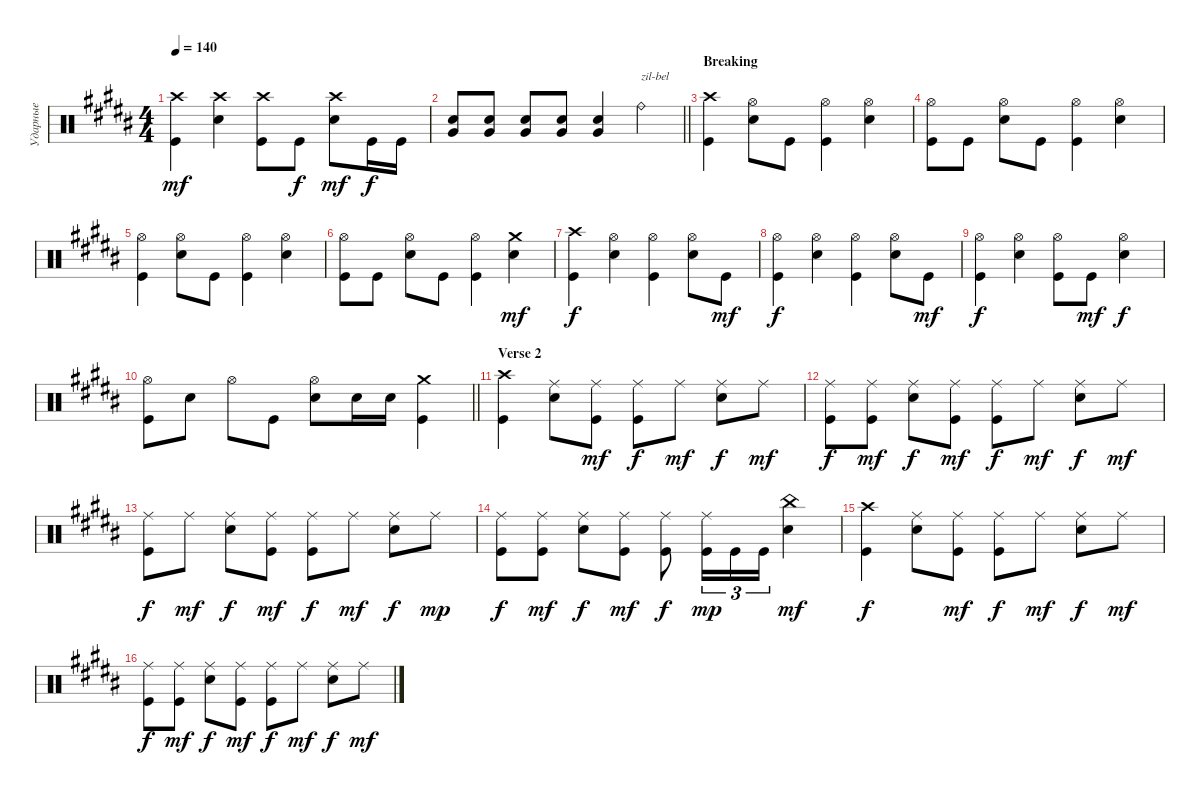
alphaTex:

\track ("Ударные" "Ударные") {instrument percussion}
\staff {score}
\articulation defaults
\ts (4 4)
\tempo 140
\clef neutral
\ks g#minor
("Kick (hit)" "Crash high (hit)").4{dy mf} ("Snare (hit) 2" "Crash high (hit)").4 ("Kick (hit)" "Crash high (hit)").8 "Kick (hit)".8{dy f} ("Snare (hit) 2" "Crash high (hit)").8{dy mf} "Kick (hit)".16{dy f} "Kick (hit)".16 |
\barLineRight lightlight
("Very Low Tom (hit)" "Snare (hit) 2").8{bd 60} ("Very Low Tom (hit)" "Snare (hit) 2").8{bd 60} ("Very Low Tom (hit)" "Snare (hit) 2").8{bd 60} ("Very Low Tom (hit)" "Snare (hit) 2").8{bd 60} ("Very Low Tom (hit)" "Snare (hit) 2").4{bd 60} "Ride (bell)".4{txt "zil-bel"} |
\section ("" "Breaking")
("Kick (hit)" "Crash high (hit)").4 ("Hi-Hat (open)" "Snare (hit) 2").8 "Kick (hit)".8 ("Kick (hit)" "Hi-Hat (open)").4 ("Hi-Hat (open)" "Snare (hit) 2").4 |
("Kick (hit)" "Hi-Hat (open)").8 "Kick (hit)".8 ("Hi-Hat (open)" "Snare (hit) 2").8 "Kick (hit)".8 ("Hi-Hat (open)" "Kick (hit)").4 ("Hi-Hat (open)" "Snare (hit) 2").4 |
("Kick (hit)" "Hi-Hat (open)").4 ("Hi-Hat (open)" "Snare (hit) 2").8 "Kick (hit)".8 ("Hi-Hat (open)" "Kick (hit)").4 ("Hi-Hat (open)" "Snare (hit) 2").4 |
("Kick (hit)" "Hi-Hat (open)").8 "Kick (hit)".8 ("Hi-Hat (open)" "Snare (hit) 2").8 "Kick (hit)".8 ("Hi-Hat (open)" "Kick (hit)").4 ("Crash medium (hit)" "Snare (hit) 2").4{dy mf} |
("Kick (hit)" "Crash high (hit)").4{dy f} ("Hi-Hat (open)" "Snare (hit) 2").4 ("Hi-Hat (open)" "Kick (hit)").4 ("Hi-Hat (open)" "Snare (hit) 2").8 "Kick (hit)".8{dy mf} |
("Kick (hit)" "Hi-Hat (open)").4{dy f} ("Hi-Hat (open)" "Snare (hit) 2").4 ("Hi-Hat (open)" "Kick (hit)").4 ("Hi-Hat (open)" "Snare (hit) 2").8 "Kick (hit)".8{dy mf} |
("Kick (hit)" "Hi-Hat (open)").4{dy f} ("Hi-Hat (open)" "Snare (hit) 2").4 ("Hi-Hat (open)" "Kick (hit)").8 "Kick (hit)".8{dy mf} ("Hi-Hat (open)" "Snare (hit) 2").4{dy f} |
\barLineRight lightlight
("Kick (hit)" "Hi-Hat (open)").8 "Snare (hit) 2".8 "Hi-Hat (open)".8 "Kick (hit)".8 ("Snare (hit) 2" "Hi-Hat (open)").8 "Snare (hit) 2".16 "Snare (hit) 2".16 ("Kick (hit)" "Crash medium (hit)").4 |
\section ("" "Verse 2")
("Kick (hit)" "Crash high (hit)").4 ("Snare (hit) 2" "Ride (middle)").8 ("Ride (middle)" "Kick (hit)").8{dy mf} ("Kick (hit)" "Ride (middle)").8{dy f} "Ride (middle)".8{dy mf} ("Snare (hit) 2" "Ride (middle)").8{dy f} "Ride (middle)".8{dy mf} |
("Kick (hit)" "Ride (middle)").8{dy f} ("Kick (hit)" "Ride (middle)").8{dy mf} ("Ride (middle)" "Snare (hit) 2").8{dy f} ("Ride (middle)" "Kick (hit)").8{dy mf} ("Ride (middle)" "Kick (hit)").8{dy f} "Ride (middle)".8{dy mf} ("Ride (middle)" "Snare (hit) 2").8{dy f} "Ride (middle)".8{dy mf} |
("Kick (hit)" "Ride (middle)").8{dy f} "Ride (middle)".8{dy mf} ("Ride (middle)" "Snare (hit) 2").8{dy f} ("Ride (middle)" "Kick (hit)").8{dy mf} ("Ride (middle)" "Kick (hit)").8{dy f} "Ride (middle)".8{dy mf} ("Ride (middle)" "Snare (hit) 2").8{dy f} "Ride (middle)".8{dy mp} |
("Kick (hit)" "Ride (middle)").8{dy f} ("Kick (hit)" "Ride (middle)").8{dy mf} ("Ride (middle)" "Snare (hit) 2").8{dy f} ("Ride (middle)" "Kick (hit)").8{dy mf} ("Ride (middle)" "Kick (hit)").8{dy f} ("Ride (middle)" "Kick (hit)").16{tu (3 2) dy mp} "Kick (hit)".16{tu (3 2)} "Kick (hit)".16{tu (3 2)} ("China (hit)" "Snare (hit) 2").4{dy mf} |
("Kick (hit)" "Crash high (hit)").4{dy f} ("Ride (middle)" "Snare (hit) 2").8 ("Ride (middle)" "Kick (hit)").8{dy mf} ("Ride (middle)" "Kick (hit)").8{dy f} "Ride (middle)".8{dy mf} ("Ride (middle)" "Snare (hit) 2").8{dy f} "Ride (middle)".8{dy mf} |
("Kick (hit)" "Ride (middle)").8{dy f} ("Kick (hit)" "Ride (middle)").8{dy mf} ("Ride (middle)" "Snare (hit) 2").8{dy f} ("Ride (middle)" "Kick (hit)").8{dy mf} ("Ride (middle)" "Kick (hit)").8{dy f} "Ride (middle)".8{dy mf} ("Ride (middle)" "Snare (hit) 2").8{dy f} "Ride (middle)".8{dy mf}
